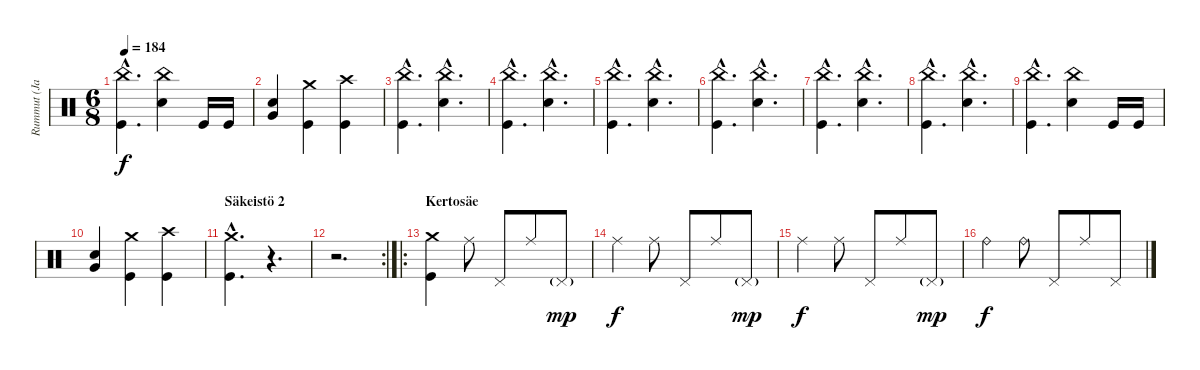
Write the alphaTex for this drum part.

\track ("Rummut (Janne)" "Rummut (Ja") {instrument percussion}
\staff {score}
\articulation defaults
\ts (6 8)
\tempo 184
\clef neutral
\ks c
("China (hit)"{hac} "Kick (hit)"{hac}).4{d dy f} ("China (hit)" "Snare (hit) 2").4 "Kick (hit)".16 "Kick (hit)".16 |
("Snare (hit) 2" "Very Low Tom (hit)").4 ("Crash medium (hit)" "Kick (hit)").4 ("Crash high (hit)" "Kick (hit)").4 |
("China (hit)"{hac} "Kick (hit)"{hac}).4{d} ("China (hit)"{hac} "Snare (hit) 2"{hac}).4{d} |
("China (hit)"{hac} "Kick (hit)"{hac}).4{d} ("China (hit)"{hac} "Snare (hit) 2"{hac}).4{d} |
("China (hit)"{hac} "Kick (hit)"{hac}).4{d} ("China (hit)"{hac} "Snare (hit) 2"{hac}).4{d} |
("China (hit)"{hac} "Kick (hit)"{hac}).4{d} ("China (hit)"{hac} "Snare (hit) 2"{hac}).4{d} |
("China (hit)"{hac} "Kick (hit)"{hac}).4{d} ("China (hit)"{hac} "Snare (hit) 2"{hac}).4{d} |
("China (hit)"{hac} "Kick (hit)"{hac}).4{d} ("China (hit)"{hac} "Snare (hit) 2"{hac}).4{d} |
("China (hit)"{hac} "Kick (hit)"{hac}).4{d} ("China (hit)" "Snare (hit) 2").4 "Kick (hit)".16 "Kick (hit)".16 |
("Snare (hit) 2" "Very Low Tom (hit)").4 ("Crash medium (hit)" "Kick (hit)").4 ("Crash high (hit)" "Kick (hit)").4 |
\section ("" "Säkeistö 2")
("Crash medium (hit)"{hac} "Kick (hit)"{hac}).4{d} r.4{d} |
\rc 2
r.2{d} |
\ro
\section ("" "Kertosäe")
("Crash medium (hit)" "Kick (hit)").4 "Ride (middle)".8 "Pedal Hi-Hat (hit)".8 "Ride (middle)".8 "Pedal Hi-Hat (hit)"{g}.8{dy mp} |
"Ride (middle)".4{dy f} "Ride (middle)".8 "Pedal Hi-Hat (hit)".8 "Ride (middle)".8 "Pedal Hi-Hat (hit)"{g}.8{dy mp} |
"Ride (middle)".4{dy f} "Ride (middle)".8 "Pedal Hi-Hat (hit)".8 "Ride (middle)".8 "Pedal Hi-Hat (hit)"{g}.8{dy mp} |
"Ride (bell)".4{dy f} "Ride (bell)".8 "Pedal Hi-Hat (hit)".8 "Ride (middle)".8 "Pedal Hi-Hat (hit)".8
